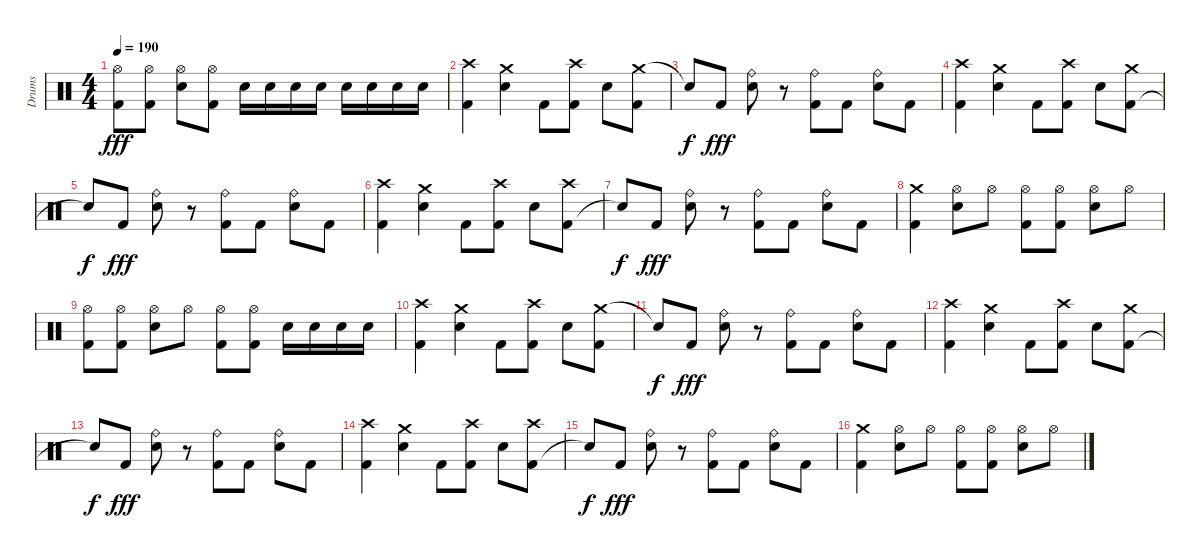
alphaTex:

\track ("Drums" "Drums") {instrument percussion}
\staff {score}
\articulation defaults
\ts (4 4)
\tempo 190
\clef neutral
\ks c
("Hi-Hat (open)" "Kick (hit) 2").8{dy fff} ("Hi-Hat (open)" "Kick (hit) 2").8 ("Hi-Hat (open)" "Electric Snare (hit)").8 ("Hi-Hat (open)" "Kick (hit) 2").8 "Electric Snare (hit)".16 "Electric Snare (hit)".16 "Electric Snare (hit)".16 "Electric Snare (hit)".16 "Electric Snare (hit)".16 "Electric Snare (hit)".16 "Electric Snare (hit)".16 "Electric Snare (hit)".16 |
("Crash high (hit)" "Kick (hit) 2").4 ("Electric Snare (hit)" "Crash medium (hit)").4 "Kick (hit) 2".8 ("Kick (hit) 2" "Crash high (hit)").8 "Electric Snare (hit)".8 ("Crash medium (hit)" "Kick (hit) 2").8 |
"Snare (hit)"{t}.8{dy f} "Kick (hit) 2".8{dy fff} ("Ride (bell)" "Electric Snare (hit)").8 r.8 ("Ride (bell)" "Kick (hit) 2").8 "Kick (hit) 2".8 ("Ride (bell)" "Electric Snare (hit)").8 "Kick (hit) 2".8 |
("Kick (hit) 2" "Crash high (hit)").4 ("Crash medium (hit)" "Electric Snare (hit)").4 "Kick (hit) 2".8 ("Crash high (hit)" "Kick (hit) 2").8 "Electric Snare (hit)".8 ("Kick (hit) 2" "Crash medium (hit)").8 |
"Snare (hit)"{t}.8{dy f} "Kick (hit) 2".8{dy fff} ("Electric Snare (hit)" "Ride (bell)").8 r.8 ("Ride (bell)" "Kick (hit) 2").8 "Kick (hit) 2".8 ("Electric Snare (hit)" "Ride (bell)").8 "Kick (hit) 2".8 |
("Crash high (hit)" "Kick (hit) 2").4 ("Crash medium (hit)" "Electric Snare (hit)").4 "Kick (hit) 2".8 ("Crash high (hit)" "Kick (hit) 2").8 "Electric Snare (hit)".8 ("Kick (hit) 2" "Crash high (hit)").8 |
"Snare (hit)"{t}.8{dy f} "Kick (hit) 2".8{dy fff} ("Electric Snare (hit)" "Ride (bell)").8 r.8 ("Kick (hit) 2" "Ride (bell)").8 "Kick (hit) 2".8 ("Electric Snare (hit)" "Ride (bell)").8 "Kick (hit) 2".8 |
("Crash medium (hit)" "Kick (hit) 2").4 ("Electric Snare (hit)" "Hi-Hat (open)").8 "Hi-Hat (open)".8 ("Kick (hit) 2" "Hi-Hat (open)").8 ("Kick (hit) 2" "Hi-Hat (open)").8 ("Hi-Hat (open)" "Electric Snare (hit)").8 "Hi-Hat (open)".8 |
("Kick (hit) 2" "Hi-Hat (open)").8 ("Hi-Hat (open)" "Kick (hit) 2").8 ("Electric Snare (hit)" "Hi-Hat (open)").8 "Hi-Hat (open)".8 ("Kick (hit) 2" "Hi-Hat (open)").8 ("Kick (hit) 2" "Hi-Hat (open)").8 "Electric Snare (hit)".16 "Electric Snare (hit)".16 "Electric Snare (hit)".16 "Electric Snare (hit)".16 |
("Crash high (hit)" "Kick (hit) 2").4 ("Electric Snare (hit)" "Crash medium (hit)").4 "Kick (hit) 2".8 ("Kick (hit) 2" "Crash high (hit)").8 "Electric Snare (hit)".8 ("Crash medium (hit)" "Kick (hit) 2").8 |
"Snare (hit)"{t}.8{dy f} "Kick (hit) 2".8{dy fff} ("Ride (bell)" "Electric Snare (hit)").8 r.8 ("Ride (bell)" "Kick (hit) 2").8 "Kick (hit) 2".8 ("Ride (bell)" "Electric Snare (hit)").8 "Kick (hit) 2".8 |
("Kick (hit) 2" "Crash high (hit)").4 ("Crash medium (hit)" "Electric Snare (hit)").4 "Kick (hit) 2".8 ("Crash high (hit)" "Kick (hit) 2").8 "Electric Snare (hit)".8 ("Kick (hit) 2" "Crash medium (hit)").8 |
"Snare (hit)"{t}.8{dy f} "Kick (hit) 2".8{dy fff} ("Electric Snare (hit)" "Ride (bell)").8 r.8 ("Ride (bell)" "Kick (hit) 2").8 "Kick (hit) 2".8 ("Electric Snare (hit)" "Ride (bell)").8 "Kick (hit) 2".8 |
("Crash high (hit)" "Kick (hit) 2").4 ("Crash medium (hit)" "Electric Snare (hit)").4 "Kick (hit) 2".8 ("Crash high (hit)" "Kick (hit) 2").8 "Electric Snare (hit)".8 ("Kick (hit) 2" "Crash high (hit)").8 |
"Snare (hit)"{t}.8{dy f} "Kick (hit) 2".8{dy fff} ("Electric Snare (hit)" "Ride (bell)").8 r.8 ("Kick (hit) 2" "Ride (bell)").8 "Kick (hit) 2".8 ("Electric Snare (hit)" "Ride (bell)").8 "Kick (hit) 2".8 |
("Crash medium (hit)" "Kick (hit) 2").4 ("Electric Snare (hit)" "Hi-Hat (open)").8 "Hi-Hat (open)".8 ("Kick (hit) 2" "Hi-Hat (open)").8 ("Kick (hit) 2" "Hi-Hat (open)").8 ("Hi-Hat (open)" "Electric Snare (hit)").8 "Hi-Hat (open)".8
